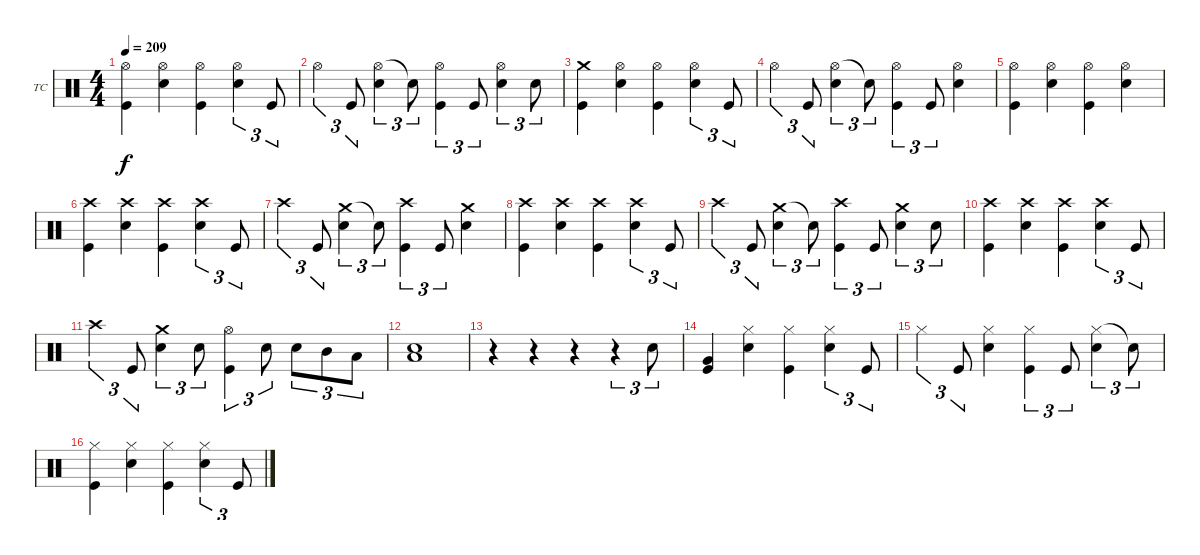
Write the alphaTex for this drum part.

\defaultSystemsLayout 4
\bracketExtendMode groupsimilarinstruments
\firstSystemTrackNameOrientation horizontal
\otherSystemsTrackNameOrientation horizontal
\track ("Drums - Tre Cool" "TC") {instrument percussion}
\staff {score}
\articulation defaults
\ts (4 4)
\tempo 209
\clef neutral
\ks c
("Hi-Hat (open)" "Kick (hit)").4{dy f} ("Hi-Hat (open)" "Snare (hit) 2").4 ("Hi-Hat (open)" "Kick (hit)").4 ("Hi-Hat (open)" "Snare (hit) 2").4{tu (3 2)} "Kick (hit)".8{tu (3 2)} |
"Hi-Hat (open)".4{tu (3 2)} "Kick (hit)".8{tu (3 2)} ("Hi-Hat (open)" "Snare (hit) 2").4{tu (3 2)} "Snare (hit) 2"{t}.8{tu (3 2)} ("Hi-Hat (open)" "Kick (hit)").4{tu (3 2)} "Kick (hit)".8{tu (3 2)} ("Hi-Hat (open)" "Snare (hit) 2").4{tu (3 2)} "Snare (hit) 2".8{tu (3 2)} |
("Crash medium (hit)" "Kick (hit)").4 ("Hi-Hat (open)" "Snare (hit) 2").4 ("Hi-Hat (open)" "Kick (hit)").4 ("Hi-Hat (open)" "Snare (hit) 2").4{tu (3 2)} "Kick (hit)".8{tu (3 2)} |
"Hi-Hat (open)".4{tu (3 2)} "Kick (hit)".8{tu (3 2)} ("Hi-Hat (open)" "Snare (hit) 2").4{tu (3 2)} "Snare (hit) 2"{t}.8{tu (3 2)} ("Hi-Hat (open)" "Kick (hit)").4{tu (3 2)} "Kick (hit)".8{tu (3 2)} ("Hi-Hat (open)" "Snare (hit) 2").4 |
("Hi-Hat (open)" "Kick (hit)").4 ("Hi-Hat (open)" "Snare (hit) 2").4 ("Hi-Hat (open)" "Kick (hit)").4 ("Hi-Hat (open)" "Snare (hit) 2").4 |
("Crash high (hit)" "Kick (hit)").4 ("Crash high (hit)" "Snare (hit) 2").4 ("Crash high (hit)" "Kick (hit)").4 ("Crash high (hit)" "Snare (hit) 2").4{tu (3 2)} "Kick (hit)".8{tu (3 2)} |
"Crash high (hit)".4{tu (3 2)} "Kick (hit)".8{tu (3 2)} ("Crash medium (hit)" "Snare (hit) 2").4{tu (3 2)} "Snare (hit) 2"{t}.8{tu (3 2)} ("Crash high (hit)" "Kick (hit)").4{tu (3 2)} "Kick (hit)".8{tu (3 2)} ("Crash medium (hit)" "Snare (hit) 2").4 |
("Crash high (hit)" "Kick (hit)").4 ("Crash high (hit)" "Snare (hit) 2").4 ("Crash high (hit)" "Kick (hit)").4 ("Crash high (hit)" "Snare (hit) 2").4{tu (3 2)} "Kick (hit)".8{tu (3 2)} |
"Crash high (hit)".4{tu (3 2)} "Kick (hit)".8{tu (3 2)} ("Crash medium (hit)" "Snare (hit) 2").4{tu (3 2)} "Snare (hit) 2"{t}.8{tu (3 2)} ("Crash high (hit)" "Kick (hit)").4{tu (3 2)} "Kick (hit)".8{tu (3 2)} ("Crash medium (hit)" "Snare (hit) 2").4{tu (3 2)} "Snare (hit) 2".8{tu (3 2)} |
("Crash high (hit)" "Kick (hit)").4 ("Crash high (hit)" "Snare (hit) 2").4 ("Crash high (hit)" "Kick (hit)").4 ("Crash high (hit)" "Snare (hit) 2").4{tu (3 2)} "Kick (hit)".8{tu (3 2)} |
"Crash high (hit)".4{tu (3 2)} "Kick (hit)".8{tu (3 2)} ("Crash medium (hit)" "Snare (hit) 2").4{tu (3 2)} "Snare (hit) 2".8{tu (3 2)} ("Hi-Hat (open)" "Kick (hit)").4{tu (3 2)} "Snare (hit) 2".8{tu (3 2)} "Snare (hit) 2".8{tu (3 2)} "Mid Tom (hit)".8{tu (3 2)} "Low Tom (hit)".8{tu (3 2)} |
("Low Tom (hit)" "Snare (hit) 2").1 |
r.4 r.4 r.4 r.4{tu (3 2)} "Snare (hit) 2".8{tu (3 2)} |
("Very Low Tom (hit)" "Kick (hit)").4 ("Hi-Hat (closed)" "Snare (hit) 2").4 ("Hi-Hat (closed)" "Kick (hit)").4 ("Hi-Hat (closed)" "Snare (hit) 2").4{tu (3 2)} "Kick (hit)".8{tu (3 2)} |
"Hi-Hat (closed)".4{tu (3 2)} "Kick (hit)".8{tu (3 2)} ("Hi-Hat (closed)" "Snare (hit) 2").4 ("Hi-Hat (closed)" "Kick (hit)").4{tu (3 2)} "Kick (hit)".8{tu (3 2)} ("Hi-Hat (closed)" "Snare (hit) 2").4{tu (3 2)} "Snare (hit) 2"{t}.8{tu (3 2)} |
("Hi-Hat (closed)" "Kick (hit)").4 ("Hi-Hat (closed)" "Snare (hit) 2").4 ("Hi-Hat (closed)" "Kick (hit)").4 ("Hi-Hat (closed)" "Snare (hit) 2").4{tu (3 2)} "Kick (hit)".8{tu (3 2)}
